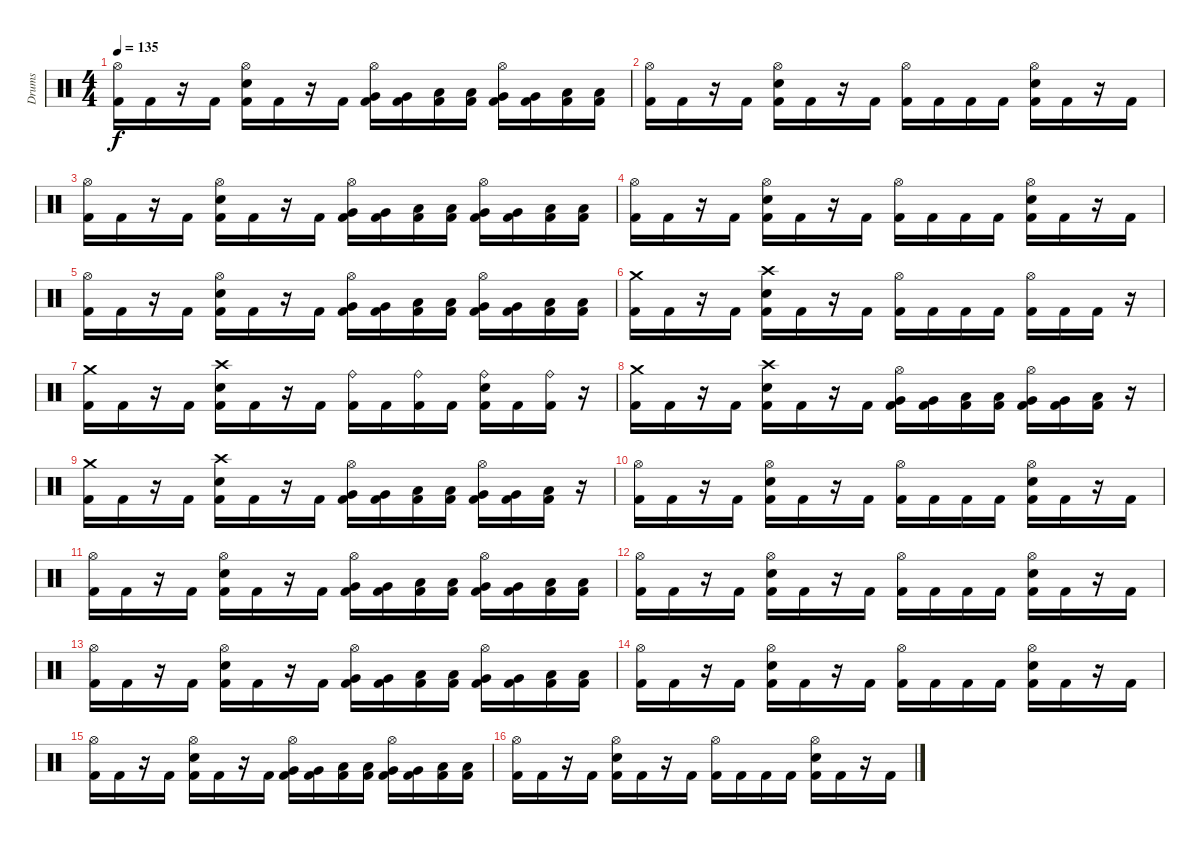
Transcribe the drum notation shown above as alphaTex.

\track ("Drums" "Drums") {instrument percussion}
\staff {score}
\articulation defaults
\ts (4 4)
\tempo 135
\clef neutral
\ks c
("Hi-Hat (open)" "Kick (hit) 2").16{dy f} "Kick (hit) 2".16 r.16 "Kick (hit) 2".16 ("Hi-Hat (open)" "Electric Snare (hit)" "Kick (hit) 2").16 "Kick (hit) 2".16 r.16 "Kick (hit) 2".16 ("Hi-Hat (open)" "Very Low Tom (hit)" "Kick (hit) 2").16 ("Very Low Tom (hit)" "Kick (hit) 2").16 ("Low Floor Tom (hit)" "Kick (hit) 2").16 ("Low Floor Tom (hit)" "Kick (hit) 2").16 ("Hi-Hat (open)" "Very Low Tom (hit)" "Kick (hit) 2").16 ("Very Low Tom (hit)" "Kick (hit) 2").16 ("Low Floor Tom (hit)" "Kick (hit) 2").16 ("Low Floor Tom (hit)" "Kick (hit) 2").16 |
("Hi-Hat (open)" "Kick (hit) 2").16 "Kick (hit) 2".16 r.16 "Kick (hit) 2".16 ("Hi-Hat (open)" "Electric Snare (hit)" "Kick (hit) 2").16 "Kick (hit) 2".16 r.16 "Kick (hit) 2".16 ("Hi-Hat (open)" "Kick (hit) 2").16 "Kick (hit) 2".16 "Kick (hit) 2".16 "Kick (hit) 2".16 ("Hi-Hat (open)" "Electric Snare (hit)" "Kick (hit) 2").16 "Kick (hit) 2".16 r.16 "Kick (hit) 2".16 |
("Hi-Hat (open)" "Kick (hit) 2").16 "Kick (hit) 2".16 r.16 "Kick (hit) 2".16 ("Hi-Hat (open)" "Electric Snare (hit)" "Kick (hit) 2").16 "Kick (hit) 2".16 r.16 "Kick (hit) 2".16 ("Hi-Hat (open)" "Very Low Tom (hit)" "Kick (hit) 2").16 ("Very Low Tom (hit)" "Kick (hit) 2").16 ("Low Floor Tom (hit)" "Kick (hit) 2").16 ("Low Floor Tom (hit)" "Kick (hit) 2").16 ("Hi-Hat (open)" "Very Low Tom (hit)" "Kick (hit) 2").16 ("Very Low Tom (hit)" "Kick (hit) 2").16 ("Low Floor Tom (hit)" "Kick (hit) 2").16 ("Low Floor Tom (hit)" "Kick (hit) 2").16 |
("Hi-Hat (open)" "Kick (hit) 2").16 "Kick (hit) 2".16 r.16 "Kick (hit) 2".16 ("Hi-Hat (open)" "Electric Snare (hit)" "Kick (hit) 2").16 "Kick (hit) 2".16 r.16 "Kick (hit) 2".16 ("Hi-Hat (open)" "Kick (hit) 2").16 "Kick (hit) 2".16 "Kick (hit) 2".16 "Kick (hit) 2".16 ("Hi-Hat (open)" "Electric Snare (hit)" "Kick (hit) 2").16 "Kick (hit) 2".16 r.16 "Kick (hit) 2".16 |
("Hi-Hat (open)" "Kick (hit) 2").16 "Kick (hit) 2".16 r.16 "Kick (hit) 2".16 ("Hi-Hat (open)" "Electric Snare (hit)" "Kick (hit) 2").16 "Kick (hit) 2".16 r.16 "Kick (hit) 2".16 ("Hi-Hat (open)" "Very Low Tom (hit)" "Kick (hit) 2").16 ("Very Low Tom (hit)" "Kick (hit) 2").16 ("Low Floor Tom (hit)" "Kick (hit) 2").16 ("Low Floor Tom (hit)" "Kick (hit) 2").16 ("Hi-Hat (open)" "Very Low Tom (hit)" "Kick (hit) 2").16 ("Very Low Tom (hit)" "Kick (hit) 2").16 ("Low Floor Tom (hit)" "Kick (hit) 2").16 ("Low Floor Tom (hit)" "Kick (hit) 2").16 |
("Crash medium (hit)" "Kick (hit) 2").16 "Kick (hit) 2".16 r.16 "Kick (hit) 2".16 ("Crash high (hit)" "Electric Snare (hit)" "Kick (hit) 2").16 "Kick (hit) 2".16 r.16 "Kick (hit) 2".16 ("Hi-Hat (open)" "Kick (hit) 2").16 "Kick (hit) 2".16 "Kick (hit) 2".16 "Kick (hit) 2".16 ("Hi-Hat (open)" "Kick (hit) 2").16 "Kick (hit) 2".16 "Kick (hit) 2".16 r.16 |
("Crash medium (hit)" "Kick (hit) 2").16 "Kick (hit) 2".16 r.16 "Kick (hit) 2".16 ("Crash high (hit)" "Electric Snare (hit)" "Kick (hit) 2").16 "Kick (hit) 2".16 r.16 "Kick (hit) 2".16 ("Ride (bell)" "Kick (hit) 2").16 "Kick (hit) 2".16 ("Ride (bell)" "Kick (hit) 2").16 "Kick (hit) 2".16 ("Ride (bell)" "Electric Snare (hit)" "Kick (hit) 2").16 "Kick (hit) 2".16 ("Ride (bell)" "Kick (hit) 2").16 r.16 |
("Crash medium (hit)" "Kick (hit) 2").16 "Kick (hit) 2".16 r.16 "Kick (hit) 2".16 ("Crash high (hit)" "Electric Snare (hit)" "Kick (hit) 2").16 "Kick (hit) 2".16 r.16 "Kick (hit) 2".16 ("Hi-Hat (open)" "Very Low Tom (hit)" "Kick (hit) 2").16 ("Very Low Tom (hit)" "Kick (hit) 2").16 ("Low Floor Tom (hit)" "Kick (hit) 2").16 ("Low Floor Tom (hit)" "Kick (hit) 2").16 ("Hi-Hat (open)" "Very Low Tom (hit)" "Kick (hit) 2").16 ("Very Low Tom (hit)" "Kick (hit) 2").16 ("Low Floor Tom (hit)" "Kick (hit) 2").16 r.16 |
("Crash medium (hit)" "Kick (hit) 2").16 "Kick (hit) 2".16 r.16 "Kick (hit) 2".16 ("Crash high (hit)" "Electric Snare (hit)" "Kick (hit) 2").16 "Kick (hit) 2".16 r.16 "Kick (hit) 2".16 ("Hi-Hat (open)" "Very Low Tom (hit)" "Kick (hit) 2").16 ("Very Low Tom (hit)" "Kick (hit) 2").16 ("Low Floor Tom (hit)" "Kick (hit) 2").16 ("Low Floor Tom (hit)" "Kick (hit) 2").16 ("Hi-Hat (open)" "Very Low Tom (hit)" "Kick (hit) 2").16 ("Very Low Tom (hit)" "Kick (hit) 2").16 ("Low Floor Tom (hit)" "Kick (hit) 2").16 r.16 |
("Hi-Hat (open)" "Kick (hit) 2").16 "Kick (hit) 2".16 r.16 "Kick (hit) 2".16 ("Hi-Hat (open)" "Electric Snare (hit)" "Kick (hit) 2").16 "Kick (hit) 2".16 r.16 "Kick (hit) 2".16 ("Hi-Hat (open)" "Kick (hit) 2").16 "Kick (hit) 2".16 "Kick (hit) 2".16 "Kick (hit) 2".16 ("Hi-Hat (open)" "Electric Snare (hit)" "Kick (hit) 2").16 "Kick (hit) 2".16 r.16 "Kick (hit) 2".16 |
("Hi-Hat (open)" "Kick (hit) 2").16 "Kick (hit) 2".16 r.16 "Kick (hit) 2".16 ("Hi-Hat (open)" "Electric Snare (hit)" "Kick (hit) 2").16 "Kick (hit) 2".16 r.16 "Kick (hit) 2".16 ("Hi-Hat (open)" "Very Low Tom (hit)" "Kick (hit) 2").16 ("Very Low Tom (hit)" "Kick (hit) 2").16 ("Low Floor Tom (hit)" "Kick (hit) 2").16 ("Low Floor Tom (hit)" "Kick (hit) 2").16 ("Hi-Hat (open)" "Very Low Tom (hit)" "Kick (hit) 2").16 ("Very Low Tom (hit)" "Kick (hit) 2").16 ("Low Floor Tom (hit)" "Kick (hit) 2").16 ("Low Floor Tom (hit)" "Kick (hit) 2").16 |
("Hi-Hat (open)" "Kick (hit) 2").16 "Kick (hit) 2".16 r.16 "Kick (hit) 2".16 ("Hi-Hat (open)" "Electric Snare (hit)" "Kick (hit) 2").16 "Kick (hit) 2".16 r.16 "Kick (hit) 2".16 ("Hi-Hat (open)" "Kick (hit) 2").16 "Kick (hit) 2".16 "Kick (hit) 2".16 "Kick (hit) 2".16 ("Hi-Hat (open)" "Electric Snare (hit)" "Kick (hit) 2").16 "Kick (hit) 2".16 r.16 "Kick (hit) 2".16 |
("Hi-Hat (open)" "Kick (hit) 2").16 "Kick (hit) 2".16 r.16 "Kick (hit) 2".16 ("Hi-Hat (open)" "Electric Snare (hit)" "Kick (hit) 2").16 "Kick (hit) 2".16 r.16 "Kick (hit) 2".16 ("Hi-Hat (open)" "Very Low Tom (hit)" "Kick (hit) 2").16 ("Very Low Tom (hit)" "Kick (hit) 2").16 ("Low Floor Tom (hit)" "Kick (hit) 2").16 ("Low Floor Tom (hit)" "Kick (hit) 2").16 ("Hi-Hat (open)" "Very Low Tom (hit)" "Kick (hit) 2").16 ("Very Low Tom (hit)" "Kick (hit) 2").16 ("Low Floor Tom (hit)" "Kick (hit) 2").16 ("Low Floor Tom (hit)" "Kick (hit) 2").16 |
("Hi-Hat (open)" "Kick (hit) 2").16 "Kick (hit) 2".16 r.16 "Kick (hit) 2".16 ("Hi-Hat (open)" "Electric Snare (hit)" "Kick (hit) 2").16 "Kick (hit) 2".16 r.16 "Kick (hit) 2".16 ("Hi-Hat (open)" "Kick (hit) 2").16 "Kick (hit) 2".16 "Kick (hit) 2".16 "Kick (hit) 2".16 ("Hi-Hat (open)" "Electric Snare (hit)" "Kick (hit) 2").16 "Kick (hit) 2".16 r.16 "Kick (hit) 2".16 |
("Hi-Hat (open)" "Kick (hit) 2").16 "Kick (hit) 2".16 r.16 "Kick (hit) 2".16 ("Hi-Hat (open)" "Electric Snare (hit)" "Kick (hit) 2").16 "Kick (hit) 2".16 r.16 "Kick (hit) 2".16 ("Hi-Hat (open)" "Very Low Tom (hit)" "Kick (hit) 2").16 ("Very Low Tom (hit)" "Kick (hit) 2").16 ("Low Floor Tom (hit)" "Kick (hit) 2").16 ("Low Floor Tom (hit)" "Kick (hit) 2").16 ("Hi-Hat (open)" "Very Low Tom (hit)" "Kick (hit) 2").16 ("Very Low Tom (hit)" "Kick (hit) 2").16 ("Low Floor Tom (hit)" "Kick (hit) 2").16 ("Low Floor Tom (hit)" "Kick (hit) 2").16 |
("Hi-Hat (open)" "Kick (hit) 2").16 "Kick (hit) 2".16 r.16 "Kick (hit) 2".16 ("Hi-Hat (open)" "Electric Snare (hit)" "Kick (hit) 2").16 "Kick (hit) 2".16 r.16 "Kick (hit) 2".16 ("Hi-Hat (open)" "Kick (hit) 2").16 "Kick (hit) 2".16 "Kick (hit) 2".16 "Kick (hit) 2".16 ("Hi-Hat (open)" "Electric Snare (hit)" "Kick (hit) 2").16 "Kick (hit) 2".16 r.16 "Kick (hit) 2".16
